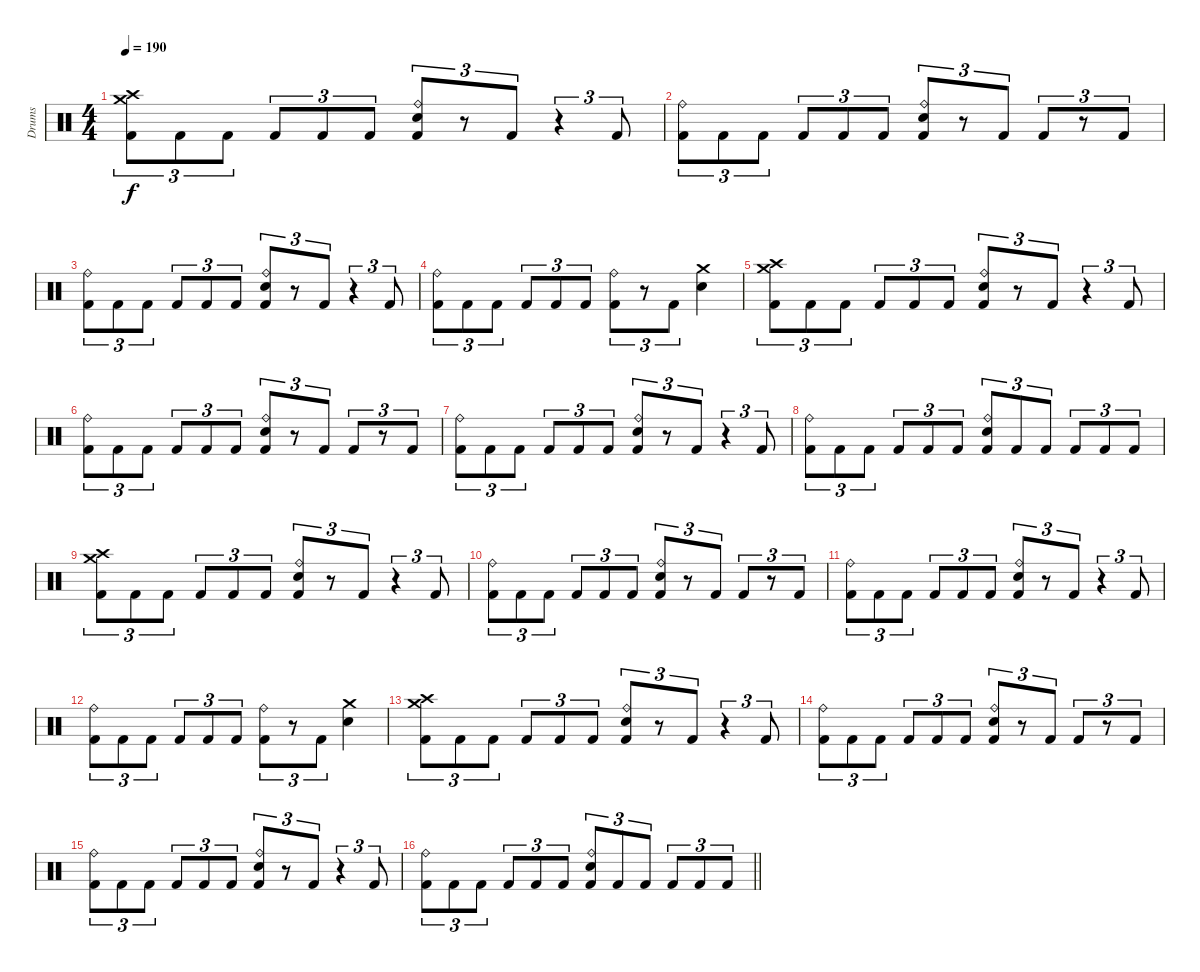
\track ("Drums" "Drums") {instrument percussion}
\staff {score}
\articulation defaults
\ts (4 4)
\tempo 190
\clef neutral
\ks c
("Crash high (hit)" "Crash medium (hit)" "Kick (hit) 2").8{tu (3 2) dy f} "Kick (hit) 2".8{tu (3 2)} "Kick (hit) 2".8{tu (3 2)} "Kick (hit) 2".8{tu (3 2)} "Kick (hit) 2".8{tu (3 2)} "Kick (hit) 2".8{tu (3 2)} ("Ride (bell)" "Electric Snare (hit)" "Kick (hit) 2").8{tu (3 2)} r.8{tu (3 2)} "Kick (hit) 2".8{tu (3 2)} r.4{tu (3 2)} "Kick (hit) 2".8{tu (3 2)} |
("Ride (bell)" "Kick (hit) 2").8{tu (3 2)} "Kick (hit) 2".8{tu (3 2)} "Kick (hit) 2".8{tu (3 2)} "Kick (hit) 2".8{tu (3 2)} "Kick (hit) 2".8{tu (3 2)} "Kick (hit) 2".8{tu (3 2)} ("Ride (bell)" "Electric Snare (hit)" "Kick (hit) 2").8{tu (3 2)} r.8{tu (3 2)} "Kick (hit) 2".8{tu (3 2)} "Kick (hit) 2".8{tu (3 2)} r.8{tu (3 2)} "Kick (hit) 2".8{tu (3 2)} |
("Ride (bell)" "Kick (hit) 2").8{tu (3 2)} "Kick (hit) 2".8{tu (3 2)} "Kick (hit) 2".8{tu (3 2)} "Kick (hit) 2".8{tu (3 2)} "Kick (hit) 2".8{tu (3 2)} "Kick (hit) 2".8{tu (3 2)} ("Ride (bell)" "Electric Snare (hit)" "Kick (hit) 2").8{tu (3 2)} r.8{tu (3 2)} "Kick (hit) 2".8{tu (3 2)} r.4{tu (3 2)} "Kick (hit) 2".8{tu (3 2)} |
("Ride (bell)" "Kick (hit) 2").8{tu (3 2)} "Kick (hit) 2".8{tu (3 2)} "Kick (hit) 2".8{tu (3 2)} "Kick (hit) 2".8{tu (3 2)} "Kick (hit) 2".8{tu (3 2)} "Kick (hit) 2".8{tu (3 2)} ("Ride (bell)" "Kick (hit) 2").8{tu (3 2)} r.8{tu (3 2)} "Kick (hit) 2".8{tu (3 2)} ("Crash medium (hit)" "Electric Snare (hit)").4 |
("Crash high (hit)" "Crash medium (hit)" "Kick (hit) 2").8{tu (3 2)} "Kick (hit) 2".8{tu (3 2)} "Kick (hit) 2".8{tu (3 2)} "Kick (hit) 2".8{tu (3 2)} "Kick (hit) 2".8{tu (3 2)} "Kick (hit) 2".8{tu (3 2)} ("Ride (bell)" "Electric Snare (hit)" "Kick (hit) 2").8{tu (3 2)} r.8{tu (3 2)} "Kick (hit) 2".8{tu (3 2)} r.4{tu (3 2)} "Kick (hit) 2".8{tu (3 2)} |
("Ride (bell)" "Kick (hit) 2").8{tu (3 2)} "Kick (hit) 2".8{tu (3 2)} "Kick (hit) 2".8{tu (3 2)} "Kick (hit) 2".8{tu (3 2)} "Kick (hit) 2".8{tu (3 2)} "Kick (hit) 2".8{tu (3 2)} ("Ride (bell)" "Electric Snare (hit)" "Kick (hit) 2").8{tu (3 2)} r.8{tu (3 2)} "Kick (hit) 2".8{tu (3 2)} "Kick (hit) 2".8{tu (3 2)} r.8{tu (3 2)} "Kick (hit) 2".8{tu (3 2)} |
("Ride (bell)" "Kick (hit) 2").8{tu (3 2)} "Kick (hit) 2".8{tu (3 2)} "Kick (hit) 2".8{tu (3 2)} "Kick (hit) 2".8{tu (3 2)} "Kick (hit) 2".8{tu (3 2)} "Kick (hit) 2".8{tu (3 2)} ("Ride (bell)" "Electric Snare (hit)" "Kick (hit) 2").8{tu (3 2)} r.8{tu (3 2)} "Kick (hit) 2".8{tu (3 2)} r.4{tu (3 2)} "Kick (hit) 2".8{tu (3 2)} |
("Ride (bell)" "Kick (hit) 2").8{tu (3 2)} "Kick (hit) 2".8{tu (3 2)} "Kick (hit) 2".8{tu (3 2)} "Kick (hit) 2".8{tu (3 2)} "Kick (hit) 2".8{tu (3 2)} "Kick (hit) 2".8{tu (3 2)} ("Ride (bell)" "Electric Snare (hit)" "Kick (hit) 2").8{tu (3 2)} "Kick (hit) 2".8{tu (3 2)} "Kick (hit) 2".8{tu (3 2)} "Kick (hit) 2".8{tu (3 2)} "Kick (hit) 2".8{tu (3 2)} "Kick (hit) 2".8{tu (3 2)} |
("Crash high (hit)" "Crash medium (hit)" "Kick (hit) 2").8{tu (3 2)} "Kick (hit) 2".8{tu (3 2)} "Kick (hit) 2".8{tu (3 2)} "Kick (hit) 2".8{tu (3 2)} "Kick (hit) 2".8{tu (3 2)} "Kick (hit) 2".8{tu (3 2)} ("Ride (bell)" "Electric Snare (hit)" "Kick (hit) 2").8{tu (3 2)} r.8{tu (3 2)} "Kick (hit) 2".8{tu (3 2)} r.4{tu (3 2)} "Kick (hit) 2".8{tu (3 2)} |
("Ride (bell)" "Kick (hit) 2").8{tu (3 2)} "Kick (hit) 2".8{tu (3 2)} "Kick (hit) 2".8{tu (3 2)} "Kick (hit) 2".8{tu (3 2)} "Kick (hit) 2".8{tu (3 2)} "Kick (hit) 2".8{tu (3 2)} ("Ride (bell)" "Electric Snare (hit)" "Kick (hit) 2").8{tu (3 2)} r.8{tu (3 2)} "Kick (hit) 2".8{tu (3 2)} "Kick (hit) 2".8{tu (3 2)} r.8{tu (3 2)} "Kick (hit) 2".8{tu (3 2)} |
("Ride (bell)" "Kick (hit) 2").8{tu (3 2)} "Kick (hit) 2".8{tu (3 2)} "Kick (hit) 2".8{tu (3 2)} "Kick (hit) 2".8{tu (3 2)} "Kick (hit) 2".8{tu (3 2)} "Kick (hit) 2".8{tu (3 2)} ("Ride (bell)" "Electric Snare (hit)" "Kick (hit) 2").8{tu (3 2)} r.8{tu (3 2)} "Kick (hit) 2".8{tu (3 2)} r.4{tu (3 2)} "Kick (hit) 2".8{tu (3 2)} |
("Ride (bell)" "Kick (hit) 2").8{tu (3 2)} "Kick (hit) 2".8{tu (3 2)} "Kick (hit) 2".8{tu (3 2)} "Kick (hit) 2".8{tu (3 2)} "Kick (hit) 2".8{tu (3 2)} "Kick (hit) 2".8{tu (3 2)} ("Ride (bell)" "Kick (hit) 2").8{tu (3 2)} r.8{tu (3 2)} "Kick (hit) 2".8{tu (3 2)} ("Crash medium (hit)" "Electric Snare (hit)").4 |
("Crash high (hit)" "Crash medium (hit)" "Kick (hit) 2").8{tu (3 2)} "Kick (hit) 2".8{tu (3 2)} "Kick (hit) 2".8{tu (3 2)} "Kick (hit) 2".8{tu (3 2)} "Kick (hit) 2".8{tu (3 2)} "Kick (hit) 2".8{tu (3 2)} ("Ride (bell)" "Electric Snare (hit)" "Kick (hit) 2").8{tu (3 2)} r.8{tu (3 2)} "Kick (hit) 2".8{tu (3 2)} r.4{tu (3 2)} "Kick (hit) 2".8{tu (3 2)} |
("Ride (bell)" "Kick (hit) 2").8{tu (3 2)} "Kick (hit) 2".8{tu (3 2)} "Kick (hit) 2".8{tu (3 2)} "Kick (hit) 2".8{tu (3 2)} "Kick (hit) 2".8{tu (3 2)} "Kick (hit) 2".8{tu (3 2)} ("Ride (bell)" "Electric Snare (hit)" "Kick (hit) 2").8{tu (3 2)} r.8{tu (3 2)} "Kick (hit) 2".8{tu (3 2)} "Kick (hit) 2".8{tu (3 2)} r.8{tu (3 2)} "Kick (hit) 2".8{tu (3 2)} |
("Ride (bell)" "Kick (hit) 2").8{tu (3 2)} "Kick (hit) 2".8{tu (3 2)} "Kick (hit) 2".8{tu (3 2)} "Kick (hit) 2".8{tu (3 2)} "Kick (hit) 2".8{tu (3 2)} "Kick (hit) 2".8{tu (3 2)} ("Ride (bell)" "Electric Snare (hit)" "Kick (hit) 2").8{tu (3 2)} r.8{tu (3 2)} "Kick (hit) 2".8{tu (3 2)} r.4{tu (3 2)} "Kick (hit) 2".8{tu (3 2)} |
\barLineRight lightlight
("Ride (bell)" "Kick (hit) 2").8{tu (3 2)} "Kick (hit) 2".8{tu (3 2)} "Kick (hit) 2".8{tu (3 2)} "Kick (hit) 2".8{tu (3 2)} "Kick (hit) 2".8{tu (3 2)} "Kick (hit) 2".8{tu (3 2)} ("Ride (bell)" "Electric Snare (hit)" "Kick (hit) 2").8{tu (3 2)} "Kick (hit) 2".8{tu (3 2)} "Kick (hit) 2".8{tu (3 2)} "Kick (hit) 2".8{tu (3 2)} "Kick (hit) 2".8{tu (3 2)} "Kick (hit) 2".8{tu (3 2)}
